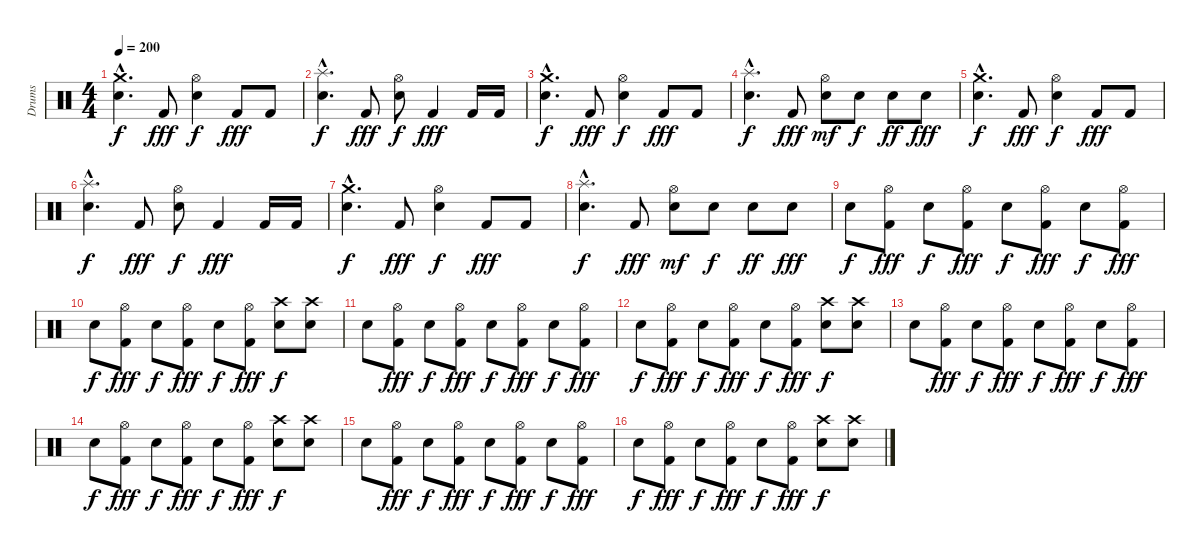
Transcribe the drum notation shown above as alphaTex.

\track ("Drums" "Drums") {instrument percussion}
\staff {score}
\articulation defaults
\ts (4 4)
\tempo 200
\clef neutral
\ks c
("Electric Snare (hit)"{hac} "Crash medium (hit)"{hac}).4{d dy f} "Kick (hit) 2".8{dy fff} ("Hi-Hat (open)" "Electric Snare (hit)").4{dy f} "Kick (hit) 2".8{dy fff} "Kick (hit) 2".8 |
("Splash (hit)"{hac} "Electric Snare (hit)"{hac}).4{d dy f} "Kick (hit) 2".8{dy fff} ("Hi-Hat (open)" "Electric Snare (hit)").8{dy f} "Kick (hit) 2".4{dy fff} "Kick (hit) 2".16 "Kick (hit) 2".16 |
("Electric Snare (hit)"{hac} "Crash medium (hit)"{hac}).4{d dy f} "Kick (hit) 2".8{dy fff} ("Hi-Hat (open)" "Electric Snare (hit)").4{dy f} "Kick (hit) 2".8{dy fff} "Kick (hit) 2".8 |
("Splash (hit)"{hac} "Electric Snare (hit)"{hac}).4{d dy f} "Kick (hit) 2".8{dy fff} ("Hi-Hat (open)" "Electric Snare (hit)").8{dy mf} "Electric Snare (hit)".8{dy f} "Electric Snare (hit)".8{dy ff} "Electric Snare (hit)".8{dy fff} |
("Electric Snare (hit)"{hac} "Crash medium (hit)"{hac}).4{d dy f} "Kick (hit) 2".8{dy fff} ("Hi-Hat (open)" "Electric Snare (hit)").4{dy f} "Kick (hit) 2".8{dy fff} "Kick (hit) 2".8 |
("Splash (hit)"{hac} "Electric Snare (hit)"{hac}).4{d dy f} "Kick (hit) 2".8{dy fff} ("Hi-Hat (open)" "Electric Snare (hit)").8{dy f} "Kick (hit) 2".4{dy fff} "Kick (hit) 2".16 "Kick (hit) 2".16 |
("Electric Snare (hit)"{hac} "Crash medium (hit)"{hac}).4{d dy f} "Kick (hit) 2".8{dy fff} ("Hi-Hat (open)" "Electric Snare (hit)").4{dy f} "Kick (hit) 2".8{dy fff} "Kick (hit) 2".8 |
("Splash (hit)"{hac} "Electric Snare (hit)"{hac}).4{d dy f} "Kick (hit) 2".8{dy fff} ("Hi-Hat (open)" "Electric Snare (hit)").8{dy mf} "Electric Snare (hit)".8{dy f} "Electric Snare (hit)".8{dy ff} "Electric Snare (hit)".8{dy fff} |
"Electric Snare (hit)".8{dy f} ("Hi-Hat (open)" "Kick (hit) 2").8{dy fff} "Electric Snare (hit)".8{dy f} ("Hi-Hat (open)" "Kick (hit) 2").8{dy fff} "Electric Snare (hit)".8{dy f} ("Hi-Hat (open)" "Kick (hit) 2").8{dy fff} "Electric Snare (hit)".8{dy f} ("Hi-Hat (open)" "Kick (hit) 2").8{dy fff} |
"Electric Snare (hit)".8{dy f} ("Hi-Hat (open)" "Kick (hit) 2").8{dy fff} "Electric Snare (hit)".8{dy f} ("Hi-Hat (open)" "Kick (hit) 2").8{dy fff} "Electric Snare (hit)".8{dy f} ("Hi-Hat (open)" "Kick (hit) 2").8{dy fff} ("Crash high (hit)" "Electric Snare (hit)").8{dy f} ("Crash high (hit)" "Electric Snare (hit)").8 |
"Electric Snare (hit)".8 ("Hi-Hat (open)" "Kick (hit) 2").8{dy fff} "Electric Snare (hit)".8{dy f} ("Hi-Hat (open)" "Kick (hit) 2").8{dy fff} "Electric Snare (hit)".8{dy f} ("Hi-Hat (open)" "Kick (hit) 2").8{dy fff} "Electric Snare (hit)".8{dy f} ("Hi-Hat (open)" "Kick (hit) 2").8{dy fff} |
"Electric Snare (hit)".8{dy f} ("Hi-Hat (open)" "Kick (hit) 2").8{dy fff} "Electric Snare (hit)".8{dy f} ("Hi-Hat (open)" "Kick (hit) 2").8{dy fff} "Electric Snare (hit)".8{dy f} ("Hi-Hat (open)" "Kick (hit) 2").8{dy fff} ("Crash high (hit)" "Electric Snare (hit)").8{dy f} ("Crash high (hit)" "Electric Snare (hit)").8 |
"Electric Snare (hit)".8 ("Hi-Hat (open)" "Kick (hit) 2").8{dy fff} "Electric Snare (hit)".8{dy f} ("Hi-Hat (open)" "Kick (hit) 2").8{dy fff} "Electric Snare (hit)".8{dy f} ("Hi-Hat (open)" "Kick (hit) 2").8{dy fff} "Electric Snare (hit)".8{dy f} ("Hi-Hat (open)" "Kick (hit) 2").8{dy fff} |
"Electric Snare (hit)".8{dy f} ("Hi-Hat (open)" "Kick (hit) 2").8{dy fff} "Electric Snare (hit)".8{dy f} ("Hi-Hat (open)" "Kick (hit) 2").8{dy fff} "Electric Snare (hit)".8{dy f} ("Hi-Hat (open)" "Kick (hit) 2").8{dy fff} ("Crash high (hit)" "Electric Snare (hit)").8{dy f} ("Crash high (hit)" "Electric Snare (hit)").8 |
"Electric Snare (hit)".8 ("Hi-Hat (open)" "Kick (hit) 2").8{dy fff} "Electric Snare (hit)".8{dy f} ("Hi-Hat (open)" "Kick (hit) 2").8{dy fff} "Electric Snare (hit)".8{dy f} ("Hi-Hat (open)" "Kick (hit) 2").8{dy fff} "Electric Snare (hit)".8{dy f} ("Hi-Hat (open)" "Kick (hit) 2").8{dy fff} |
"Electric Snare (hit)".8{dy f} ("Hi-Hat (open)" "Kick (hit) 2").8{dy fff} "Electric Snare (hit)".8{dy f} ("Hi-Hat (open)" "Kick (hit) 2").8{dy fff} "Electric Snare (hit)".8{dy f} ("Hi-Hat (open)" "Kick (hit) 2").8{dy fff} ("Crash high (hit)" "Electric Snare (hit)").8{dy f} ("Crash high (hit)" "Electric Snare (hit)").8
